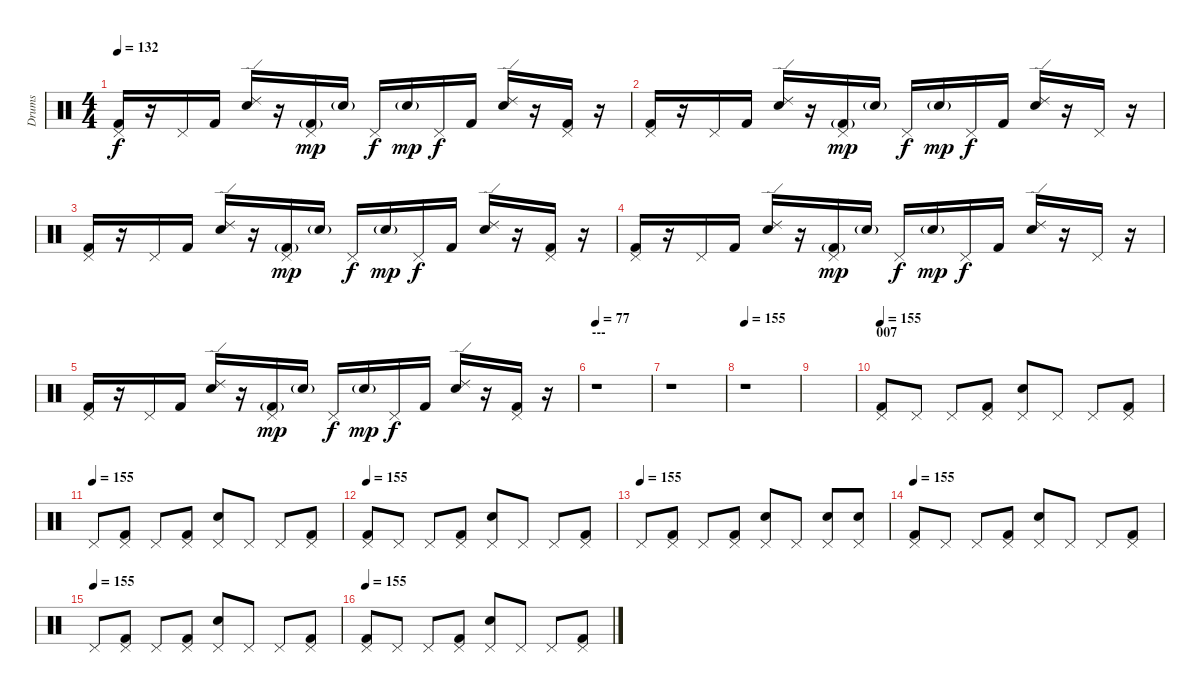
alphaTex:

\track ("Drums" "Drums") {instrument percussion}
\staff {score}
\articulation defaults
\ts (4 4)
\tempo 132
\clef neutral
\ks c
("Kick (hit) 2" "Pedal Hi-Hat (hit)").16{dy f} r.16 "Pedal Hi-Hat (hit)".16 "Kick (hit) 2".16 ("Electric Snare (hit)" "Ride (edge) 2").16 r.16 ("Kick (hit) 2"{g} "Pedal Hi-Hat (hit)").16{dy mp} "Electric Snare (hit)"{g}.16 "Pedal Hi-Hat (hit)".16{dy f} "Electric Snare (hit)"{g}.16{dy mp} "Pedal Hi-Hat (hit)".16{dy f} "Kick (hit) 2".16 ("Electric Snare (hit)" "Ride (edge) 2").16 r.16 ("Kick (hit) 2" "Pedal Hi-Hat (hit)").16 r.16 |
("Kick (hit) 2" "Pedal Hi-Hat (hit)").16 r.16 "Pedal Hi-Hat (hit)".16 "Kick (hit) 2".16 ("Electric Snare (hit)" "Ride (edge) 2").16 r.16 ("Kick (hit) 2"{g} "Pedal Hi-Hat (hit)").16{dy mp} "Electric Snare (hit)"{g}.16 "Pedal Hi-Hat (hit)".16{dy f} "Electric Snare (hit)"{g}.16{dy mp} "Pedal Hi-Hat (hit)".16{dy f} "Kick (hit) 2".16 ("Electric Snare (hit)" "Ride (edge) 2").16 r.16 "Pedal Hi-Hat (hit)".16 r.16 |
("Kick (hit) 2" "Pedal Hi-Hat (hit)").16 r.16 "Pedal Hi-Hat (hit)".16 "Kick (hit) 2".16 ("Electric Snare (hit)" "Ride (edge) 2").16 r.16 ("Kick (hit) 2"{g} "Pedal Hi-Hat (hit)").16{dy mp} "Electric Snare (hit)"{g}.16 "Pedal Hi-Hat (hit)".16{dy f} "Electric Snare (hit)"{g}.16{dy mp} "Pedal Hi-Hat (hit)".16{dy f} "Kick (hit) 2".16 ("Electric Snare (hit)" "Ride (edge) 2").16 r.16 ("Kick (hit) 2" "Pedal Hi-Hat (hit)").16 r.16 |
("Kick (hit) 2" "Pedal Hi-Hat (hit)").16 r.16 "Pedal Hi-Hat (hit)".16 "Kick (hit) 2".16 ("Electric Snare (hit)" "Ride (edge) 2").16 r.16 ("Kick (hit) 2"{g} "Pedal Hi-Hat (hit)").16{dy mp} "Electric Snare (hit)"{g}.16 "Pedal Hi-Hat (hit)".16{dy f} "Electric Snare (hit)"{g}.16{dy mp} "Pedal Hi-Hat (hit)".16{dy f} "Kick (hit) 2".16 ("Electric Snare (hit)" "Ride (edge) 2").16 r.16 "Pedal Hi-Hat (hit)".16 r.16 |
("Kick (hit) 2" "Pedal Hi-Hat (hit)").16 r.16 "Pedal Hi-Hat (hit)".16 "Kick (hit) 2".16 ("Electric Snare (hit)" "Ride (edge) 2").16 r.16 ("Kick (hit) 2"{g} "Pedal Hi-Hat (hit)").16{dy mp} "Electric Snare (hit)"{g}.16 "Pedal Hi-Hat (hit)".16{dy f} "Electric Snare (hit)"{g}.16{dy mp} "Pedal Hi-Hat (hit)".16{dy f} "Kick (hit) 2".16 ("Electric Snare (hit)" "Ride (edge) 2").16 r.16 ("Kick (hit) 2" "Pedal Hi-Hat (hit)").16 r.16 |
\section ("" "---")
\tempo 77
r.1 |
r.1 |
\tempo 155
r.1 |
|
\section ("" "007")
\tempo 155
("Pedal Hi-Hat (hit)" "Kick (hit) 2").8 "Pedal Hi-Hat (hit)".8 "Pedal Hi-Hat (hit)".8 ("Pedal Hi-Hat (hit)" "Kick (hit) 2").8 ("Pedal Hi-Hat (hit)" "Electric Snare (hit)").8 "Pedal Hi-Hat (hit)".8 "Pedal Hi-Hat (hit)".8 ("Pedal Hi-Hat (hit)" "Kick (hit) 2").8 |
\tempo (155)
"Pedal Hi-Hat (hit)".8 ("Pedal Hi-Hat (hit)" "Kick (hit) 2").8 "Pedal Hi-Hat (hit)".8 ("Pedal Hi-Hat (hit)" "Kick (hit) 2").8 ("Pedal Hi-Hat (hit)" "Electric Snare (hit)").8 "Pedal Hi-Hat (hit)".8 "Pedal Hi-Hat (hit)".8 ("Pedal Hi-Hat (hit)" "Kick (hit) 2").8 |
\tempo 155
("Pedal Hi-Hat (hit)" "Kick (hit) 2").8 "Pedal Hi-Hat (hit)".8 "Pedal Hi-Hat (hit)".8 ("Pedal Hi-Hat (hit)" "Kick (hit) 2").8 ("Pedal Hi-Hat (hit)" "Electric Snare (hit)").8 "Pedal Hi-Hat (hit)".8 "Pedal Hi-Hat (hit)".8 ("Pedal Hi-Hat (hit)" "Kick (hit) 2").8 |
\tempo (155)
"Pedal Hi-Hat (hit)".8 ("Pedal Hi-Hat (hit)" "Kick (hit) 2").8 "Pedal Hi-Hat (hit)".8 ("Pedal Hi-Hat (hit)" "Kick (hit) 2").8 ("Pedal Hi-Hat (hit)" "Electric Snare (hit)").8 "Pedal Hi-Hat (hit)".8 ("Pedal Hi-Hat (hit)" "Electric Snare (hit)").8 ("Pedal Hi-Hat (hit)" "Electric Snare (hit)").8 |
\tempo 155
("Pedal Hi-Hat (hit)" "Kick (hit) 2").8 "Pedal Hi-Hat (hit)".8 "Pedal Hi-Hat (hit)".8 ("Pedal Hi-Hat (hit)" "Kick (hit) 2").8 ("Pedal Hi-Hat (hit)" "Electric Snare (hit)").8 "Pedal Hi-Hat (hit)".8 "Pedal Hi-Hat (hit)".8 ("Pedal Hi-Hat (hit)" "Kick (hit) 2").8 |
\tempo (155)
"Pedal Hi-Hat (hit)".8 ("Pedal Hi-Hat (hit)" "Kick (hit) 2").8 "Pedal Hi-Hat (hit)".8 ("Pedal Hi-Hat (hit)" "Kick (hit) 2").8 ("Pedal Hi-Hat (hit)" "Electric Snare (hit)").8 "Pedal Hi-Hat (hit)".8 "Pedal Hi-Hat (hit)".8 ("Pedal Hi-Hat (hit)" "Kick (hit) 2").8 |
\tempo 155
("Pedal Hi-Hat (hit)" "Kick (hit) 2").8 "Pedal Hi-Hat (hit)".8 "Pedal Hi-Hat (hit)".8 ("Pedal Hi-Hat (hit)" "Kick (hit) 2").8 ("Pedal Hi-Hat (hit)" "Electric Snare (hit)").8 "Pedal Hi-Hat (hit)".8 "Pedal Hi-Hat (hit)".8 ("Pedal Hi-Hat (hit)" "Kick (hit) 2").8
